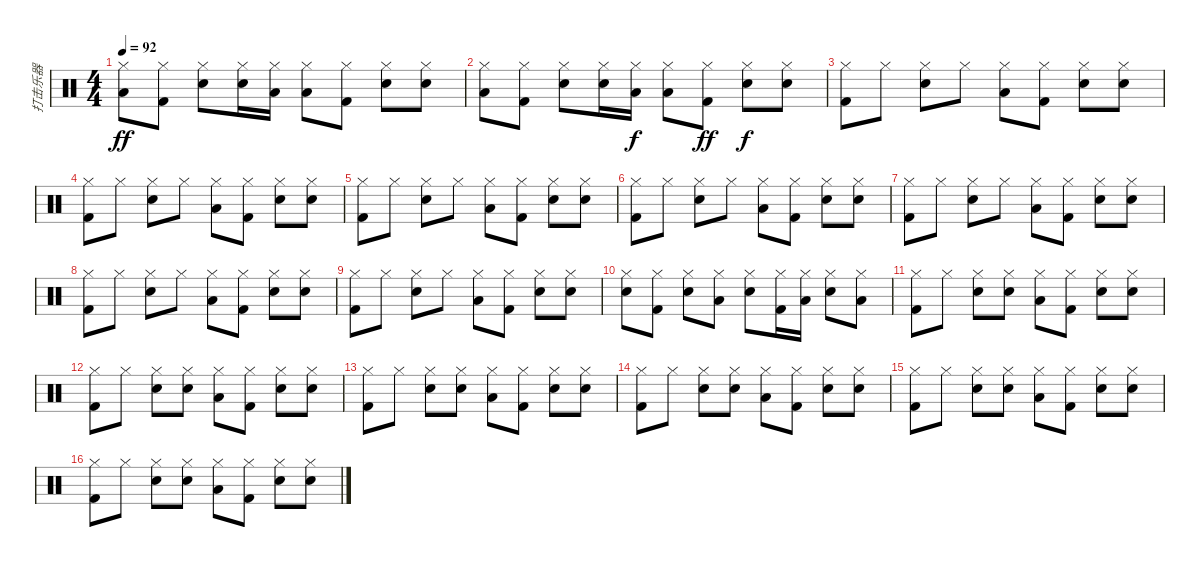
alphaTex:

\track ("打击乐器" "打击乐器") {instrument percussion}
\staff {score}
\articulation defaults
\ts (4 4)
\tempo 92
\clef neutral
\ks c
("Hi-Hat (closed)" "Low Tom (hit)").8{dy ff} ("Hi-Hat (closed)" "Kick (hit) 2").8 ("Hi-Hat (closed)" "Electric Snare (hit)").8 ("Hi-Hat (closed)" "Electric Snare (hit)").16 ("Hi-Hat (closed)" "Low Tom (hit)").16 ("Hi-Hat (closed)" "Low Tom (hit)").8 ("Hi-Hat (closed)" "Kick (hit) 2").8 ("Hi-Hat (closed)" "Electric Snare (hit)").8 ("Hi-Hat (closed)" "Electric Snare (hit)").8 |
("Hi-Hat (closed)" "Low Tom (hit)").8 ("Hi-Hat (closed)" "Kick (hit) 2").8 ("Hi-Hat (closed)" "Electric Snare (hit)").8 ("Hi-Hat (closed)" "Electric Snare (hit)").16 ("Hi-Hat (closed)" "Low Tom (hit)").16{dy f} ("Hi-Hat (closed)" "Low Tom (hit)").8 ("Hi-Hat (closed)" "Kick (hit) 2").8{dy ff} ("Hi-Hat (closed)" "Electric Snare (hit)").8{dy f} ("Hi-Hat (closed)" "Electric Snare (hit)").8 |
("Hi-Hat (closed)" "Kick (hit) 2").8 "Hi-Hat (closed)".8 ("Hi-Hat (closed)" "Electric Snare (hit)").8 "Hi-Hat (closed)".8 ("Hi-Hat (closed)" "Low Tom (hit)").8 ("Hi-Hat (closed)" "Kick (hit) 2").8 ("Hi-Hat (closed)" "Electric Snare (hit)").8 ("Hi-Hat (closed)" "Electric Snare (hit)").8 |
("Hi-Hat (closed)" "Kick (hit) 2").8 "Hi-Hat (closed)".8 ("Hi-Hat (closed)" "Electric Snare (hit)").8 "Hi-Hat (closed)".8 ("Hi-Hat (closed)" "Low Tom (hit)").8 ("Hi-Hat (closed)" "Kick (hit) 2").8 ("Hi-Hat (closed)" "Electric Snare (hit)").8 ("Hi-Hat (closed)" "Electric Snare (hit)").8 |
("Hi-Hat (closed)" "Kick (hit) 2").8 "Hi-Hat (closed)".8 ("Hi-Hat (closed)" "Electric Snare (hit)").8 "Hi-Hat (closed)".8 ("Hi-Hat (closed)" "Low Tom (hit)").8 ("Hi-Hat (closed)" "Kick (hit) 2").8 ("Hi-Hat (closed)" "Electric Snare (hit)").8 ("Hi-Hat (closed)" "Electric Snare (hit)").8 |
("Hi-Hat (closed)" "Kick (hit) 2").8 "Hi-Hat (closed)".8 ("Hi-Hat (closed)" "Electric Snare (hit)").8 "Hi-Hat (closed)".8 ("Hi-Hat (closed)" "Low Tom (hit)").8 ("Hi-Hat (closed)" "Kick (hit) 2").8 ("Hi-Hat (closed)" "Electric Snare (hit)").8 ("Hi-Hat (closed)" "Electric Snare (hit)").8 |
("Hi-Hat (closed)" "Kick (hit) 2").8 "Hi-Hat (closed)".8 ("Hi-Hat (closed)" "Electric Snare (hit)").8 "Hi-Hat (closed)".8 ("Hi-Hat (closed)" "Low Tom (hit)").8 ("Hi-Hat (closed)" "Kick (hit) 2").8 ("Hi-Hat (closed)" "Electric Snare (hit)").8 ("Hi-Hat (closed)" "Electric Snare (hit)").8 |
("Hi-Hat (closed)" "Kick (hit) 2").8 "Hi-Hat (closed)".8 ("Hi-Hat (closed)" "Electric Snare (hit)").8 "Hi-Hat (closed)".8 ("Hi-Hat (closed)" "Low Tom (hit)").8 ("Hi-Hat (closed)" "Kick (hit) 2").8 ("Hi-Hat (closed)" "Electric Snare (hit)").8 ("Hi-Hat (closed)" "Electric Snare (hit)").8 |
("Hi-Hat (closed)" "Kick (hit) 2").8 "Hi-Hat (closed)".8 ("Hi-Hat (closed)" "Electric Snare (hit)").8 "Hi-Hat (closed)".8 ("Hi-Hat (closed)" "Low Tom (hit)").8 ("Hi-Hat (closed)" "Kick (hit) 2").8 ("Hi-Hat (closed)" "Electric Snare (hit)").8 ("Hi-Hat (closed)" "Electric Snare (hit)").8 |
("Hi-Hat (closed)" "Electric Snare (hit)").8 ("Hi-Hat (closed)" "Kick (hit) 2").8 ("Hi-Hat (closed)" "Electric Snare (hit)").8 ("Hi-Hat (closed)" "Low Tom (hit)").8 ("Hi-Hat (closed)" "Electric Snare (hit)").8 ("Hi-Hat (closed)" "Kick (hit) 2").16 ("Hi-Hat (closed)" "Low Tom (hit)").16 ("Hi-Hat (closed)" "Electric Snare (hit)").8 ("Hi-Hat (closed)" "Low Tom (hit)").8 |
("Hi-Hat (closed)" "Kick (hit) 2").8 "Hi-Hat (closed)".8 ("Hi-Hat (closed)" "Electric Snare (hit)").8 ("Hi-Hat (closed)" "Electric Snare (hit)").8 ("Hi-Hat (closed)" "Low Tom (hit)").8 ("Hi-Hat (closed)" "Kick (hit) 2").8 ("Hi-Hat (closed)" "Electric Snare (hit)").8 ("Hi-Hat (closed)" "Electric Snare (hit)").8 |
("Hi-Hat (closed)" "Kick (hit) 2").8 "Hi-Hat (closed)".8 ("Hi-Hat (closed)" "Electric Snare (hit)").8 ("Hi-Hat (closed)" "Electric Snare (hit)").8 ("Hi-Hat (closed)" "Low Tom (hit)").8 ("Hi-Hat (closed)" "Kick (hit) 2").8 ("Hi-Hat (closed)" "Electric Snare (hit)").8 ("Hi-Hat (closed)" "Electric Snare (hit)").8 |
("Hi-Hat (closed)" "Kick (hit) 2").8 "Hi-Hat (closed)".8 ("Hi-Hat (closed)" "Electric Snare (hit)").8 ("Hi-Hat (closed)" "Electric Snare (hit)").8 ("Hi-Hat (closed)" "Low Tom (hit)").8 ("Hi-Hat (closed)" "Kick (hit) 2").8 ("Hi-Hat (closed)" "Electric Snare (hit)").8 ("Hi-Hat (closed)" "Electric Snare (hit)").8 |
("Hi-Hat (closed)" "Kick (hit) 2").8 "Hi-Hat (closed)".8 ("Hi-Hat (closed)" "Electric Snare (hit)").8 ("Hi-Hat (closed)" "Electric Snare (hit)").8 ("Hi-Hat (closed)" "Low Tom (hit)").8 ("Hi-Hat (closed)" "Kick (hit) 2").8 ("Hi-Hat (closed)" "Electric Snare (hit)").8 ("Hi-Hat (closed)" "Electric Snare (hit)").8 |
("Hi-Hat (closed)" "Kick (hit) 2").8 "Hi-Hat (closed)".8 ("Hi-Hat (closed)" "Electric Snare (hit)").8 ("Hi-Hat (closed)" "Electric Snare (hit)").8 ("Hi-Hat (closed)" "Low Tom (hit)").8 ("Hi-Hat (closed)" "Kick (hit) 2").8 ("Hi-Hat (closed)" "Electric Snare (hit)").8 ("Hi-Hat (closed)" "Electric Snare (hit)").8 |
("Hi-Hat (closed)" "Kick (hit) 2").8 "Hi-Hat (closed)".8 ("Hi-Hat (closed)" "Electric Snare (hit)").8 ("Hi-Hat (closed)" "Electric Snare (hit)").8 ("Hi-Hat (closed)" "Low Tom (hit)").8 ("Hi-Hat (closed)" "Kick (hit) 2").8 ("Hi-Hat (closed)" "Electric Snare (hit)").8 ("Hi-Hat (closed)" "Electric Snare (hit)").8
